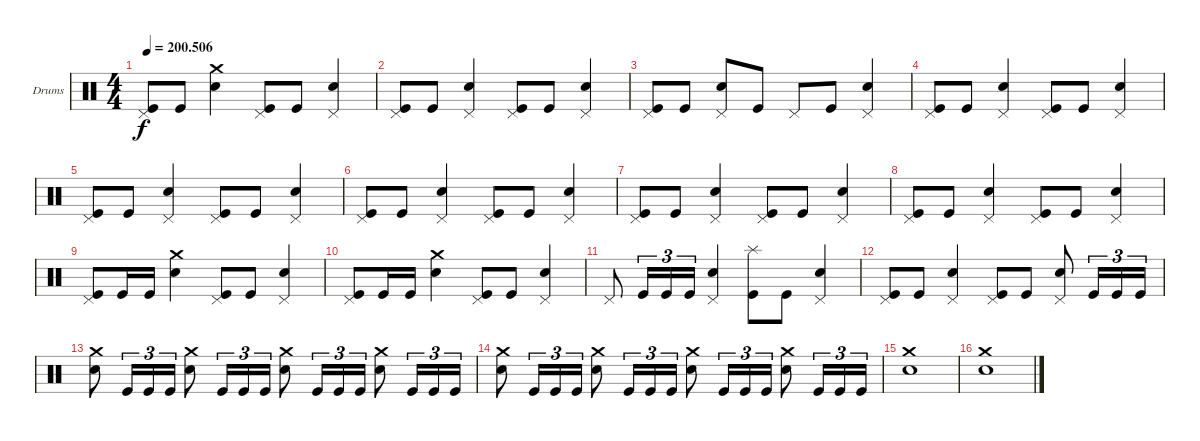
\bracketExtendMode groupsimilarinstruments
\firstSystemTrackNameOrientation horizontal
\otherSystemsTrackNameOrientation horizontal
\track ("Drums" "Drums") {instrument percussion}
\staff {score}
\articulation defaults
\ts (4 4)
\tempo
200.506
\accidentals auto
\clef neutral
\ottava regular
\simile none
\ks c
("Pedal Hi-Hat (hit)" "Kick (hit)").8{dy f} "Kick (hit)".8 ("Crash medium (hit)" "Snare (hit) 2").4 ("Pedal Hi-Hat (hit)" "Kick (hit)").8 "Kick (hit)".8 ("Pedal Hi-Hat (hit)" "Snare (hit) 2").4 |
("Pedal Hi-Hat (hit)" "Kick (hit)").8 "Kick (hit)".8 ("Pedal Hi-Hat (hit)" "Snare (hit) 2").4 ("Pedal Hi-Hat (hit)" "Kick (hit)").8 "Kick (hit)".8 ("Pedal Hi-Hat (hit)" "Snare (hit) 2").4 |
("Pedal Hi-Hat (hit)" "Kick (hit)").8 "Kick (hit)".8 ("Pedal Hi-Hat (hit)" "Snare (hit) 2").8 "Kick (hit)".8 "Pedal Hi-Hat (hit)".8 "Kick (hit)".8 ("Pedal Hi-Hat (hit)" "Snare (hit) 2").4 |
("Pedal Hi-Hat (hit)" "Kick (hit)").8 "Kick (hit)".8 ("Pedal Hi-Hat (hit)" "Snare (hit) 2").4 ("Pedal Hi-Hat (hit)" "Kick (hit)").8 "Kick (hit)".8 ("Pedal Hi-Hat (hit)" "Snare (hit) 2").4 |
("Pedal Hi-Hat (hit)" "Kick (hit)").8 "Kick (hit)".8 ("Pedal Hi-Hat (hit)" "Snare (hit) 2").4 ("Pedal Hi-Hat (hit)" "Kick (hit)").8 "Kick (hit)".8 ("Pedal Hi-Hat (hit)" "Snare (hit) 2").4 |
("Pedal Hi-Hat (hit)" "Kick (hit)").8 "Kick (hit)".8 ("Pedal Hi-Hat (hit)" "Snare (hit) 2").4 ("Pedal Hi-Hat (hit)" "Kick (hit)").8 "Kick (hit)".8 ("Pedal Hi-Hat (hit)" "Snare (hit) 2").4 |
("Pedal Hi-Hat (hit)" "Kick (hit)").8 "Kick (hit)".8 ("Pedal Hi-Hat (hit)" "Snare (hit) 2").4 ("Pedal Hi-Hat (hit)" "Kick (hit)").8 "Kick (hit)".8 ("Pedal Hi-Hat (hit)" "Snare (hit) 2").4 |
("Pedal Hi-Hat (hit)" "Kick (hit)").8 "Kick (hit)".8 ("Pedal Hi-Hat (hit)" "Snare (hit) 2").4 ("Pedal Hi-Hat (hit)" "Kick (hit)").8 "Kick (hit)".8 ("Pedal Hi-Hat (hit)" "Snare (hit) 2").4 |
("Pedal Hi-Hat (hit)" "Kick (hit)").8 "Kick (hit)".16 "Kick (hit)".16 ("Crash medium (hit)" "Snare (hit) 2").4 ("Pedal Hi-Hat (hit)" "Kick (hit)").8 "Kick (hit)".8 ("Pedal Hi-Hat (hit)" "Snare (hit) 2").4 |
("Pedal Hi-Hat (hit)" "Kick (hit)").8 "Kick (hit)".16 "Kick (hit)".16 ("Crash medium (hit)" "Snare (hit) 2").4 ("Pedal Hi-Hat (hit)" "Kick (hit)").8 "Kick (hit)".8 ("Pedal Hi-Hat (hit)" "Snare (hit) 2").4 |
"Pedal Hi-Hat (hit)".8 "Kick (hit)".16{tu (3 2)} "Kick (hit)".16{tu (3 2)} "Kick (hit)".16{tu (3 2)} ("Pedal Hi-Hat (hit)" "Snare (hit) 2").4 ("Splash (hit)" "Kick (hit)").8 "Kick (hit)".8 ("Pedal Hi-Hat (hit)" "Snare (hit) 2").4 |
("Pedal Hi-Hat (hit)" "Kick (hit)").8 "Kick (hit)".8 ("Pedal Hi-Hat (hit)" "Snare (hit) 2").4 ("Pedal Hi-Hat (hit)" "Kick (hit)").8 "Kick (hit)".8 ("Pedal Hi-Hat (hit)" "Snare (hit) 2").8 "Kick (hit)".16{tu (3 2)} "Kick (hit)".16{tu (3 2)} "Kick (hit)".16{tu (3 2)} |
("Crash medium (hit)" "Snare (hit) 2").8 "Kick (hit)".16{tu (3 2)} "Kick (hit)".16{tu (3 2)} "Kick (hit)".16{tu (3 2)} ("Crash medium (hit)" "Snare (hit) 2").8 "Kick (hit)".16{tu (3 2)} "Kick (hit)".16{tu (3 2)} "Kick (hit)".16{tu (3 2)} ("Crash medium (hit)" "Snare (hit) 2").8 "Kick (hit)".16{tu (3 2)} "Kick (hit)".16{tu (3 2)} "Kick (hit)".16{tu (3 2)} ("Crash medium (hit)" "Snare (hit) 2").8 "Kick (hit)".16{tu (3 2)} "Kick (hit)".16{tu (3 2)} "Kick (hit)".16{tu (3 2)} |
("Crash medium (hit)" "Snare (hit) 2").8 "Kick (hit)".16{tu (3 2)} "Kick (hit)".16{tu (3 2)} "Kick (hit)".16{tu (3 2)} ("Crash medium (hit)" "Snare (hit) 2").8 "Kick (hit)".16{tu (3 2)} "Kick (hit)".16{tu (3 2)} "Kick (hit)".16{tu (3 2)} ("Crash medium (hit)" "Snare (hit) 2").8 "Kick (hit)".16{tu (3 2)} "Kick (hit)".16{tu (3 2)} "Kick (hit)".16{tu (3 2)} ("Crash medium (hit)" "Snare (hit) 2").8 "Kick (hit)".16{tu (3 2)} "Kick (hit)".16{tu (3 2)} "Kick (hit)".16{tu (3 2)} |
("Crash medium (hit)" "Snare (hit) 2").1 |
("Crash medium (hit)" "Snare (hit) 2").1
